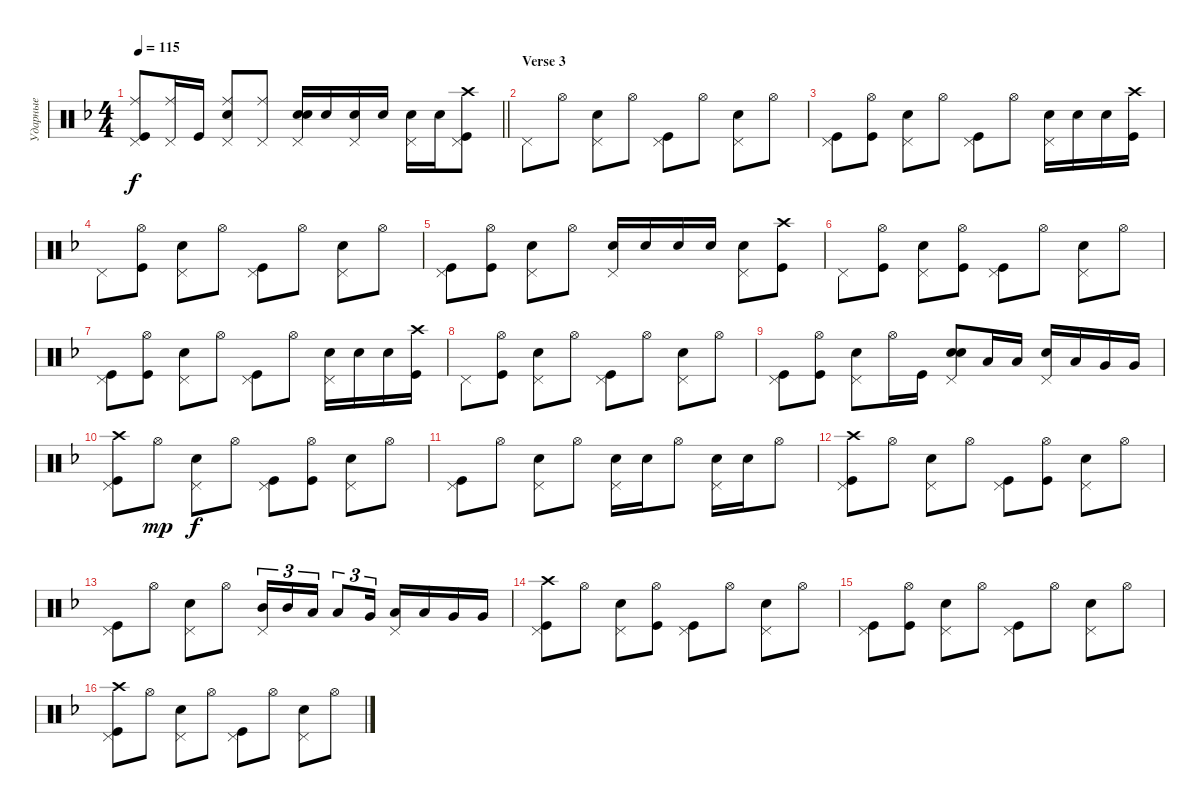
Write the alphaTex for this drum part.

\track ("Ударные" "Ударные") {instrument percussion}
\staff {score}
\articulation defaults
\ts (4 4)
\tempo 115
\clef neutral
\barLineRight lightlight
\ks dminor
("Kick (hit)" "Pedal Hi-Hat (hit)" "Ride (middle)").8{dy f} ("Pedal Hi-Hat (hit)" "Ride (middle)").16 "Kick (hit)".16 ("Snare (hit) 2" "Ride (middle)" "Pedal Hi-Hat (hit)").8 ("Ride (middle)" "Pedal Hi-Hat (hit)").8 ("Snare (hit) 2" "Snare (hit) 2" "Pedal Hi-Hat (hit)").16{bd 240} "Snare (hit) 2".16 ("Snare (hit) 2" "Pedal Hi-Hat (hit)").16 "Snare (hit) 2".16 ("Snare (hit) 2" "Pedal Hi-Hat (hit)").16 "Snare (hit) 2".16 ("Kick (hit)" "Crash high (hit)" "Pedal Hi-Hat (hit)").8 |
\section ("" "Verse 3")
"Pedal Hi-Hat (hit)".8 "Hi-Hat (open)".8 ("Snare (hit) 2" "Pedal Hi-Hat (hit)").8 "Hi-Hat (open)".8 ("Kick (hit)" "Pedal Hi-Hat (hit)").8 "Hi-Hat (open)".8 ("Snare (hit) 2" "Pedal Hi-Hat (hit)").8 "Hi-Hat (open)".8 |
("Kick (hit)" "Pedal Hi-Hat (hit)").8 ("Hi-Hat (open)" "Kick (hit)").8 ("Snare (hit) 2" "Pedal Hi-Hat (hit)").8 "Hi-Hat (open)".8 ("Kick (hit)" "Pedal Hi-Hat (hit)").8 "Hi-Hat (open)".8 ("Snare (hit) 2" "Pedal Hi-Hat (hit)").16 "Snare (hit) 2".16 "Snare (hit) 2".16 ("Kick (hit)" "Crash high (hit)").16 |
"Pedal Hi-Hat (hit)".8 ("Hi-Hat (open)" "Kick (hit)").8 ("Snare (hit) 2" "Pedal Hi-Hat (hit)").8 "Hi-Hat (open)".8 ("Kick (hit)" "Pedal Hi-Hat (hit)").8 "Hi-Hat (open)".8 ("Snare (hit) 2" "Pedal Hi-Hat (hit)").8 "Hi-Hat (open)".8 |
("Kick (hit)" "Pedal Hi-Hat (hit)").8 ("Kick (hit)" "Hi-Hat (open)").8 ("Snare (hit) 2" "Pedal Hi-Hat (hit)").8 "Hi-Hat (open)".8 ("Snare (hit) 2" "Pedal Hi-Hat (hit)").16 "Snare (hit) 2".16 "Snare (hit) 2".16 "Snare (hit) 2".16 ("Snare (hit) 2" "Pedal Hi-Hat (hit)").8 ("Kick (hit)" "Crash high (hit)").8 |
"Pedal Hi-Hat (hit)".8 ("Kick (hit)" "Hi-Hat (open)").8 ("Snare (hit) 2" "Pedal Hi-Hat (hit)").8 ("Hi-Hat (open)" "Kick (hit)").8 ("Kick (hit)" "Pedal Hi-Hat (hit)").8 "Hi-Hat (open)".8 ("Snare (hit) 2" "Pedal Hi-Hat (hit)").8 "Hi-Hat (open)".8 |
("Kick (hit)" "Pedal Hi-Hat (hit)").8 ("Hi-Hat (open)" "Kick (hit)").8 ("Snare (hit) 2" "Pedal Hi-Hat (hit)").8 "Hi-Hat (open)".8 ("Kick (hit)" "Pedal Hi-Hat (hit)").8 "Hi-Hat (open)".8 ("Snare (hit) 2" "Pedal Hi-Hat (hit)").16 "Snare (hit) 2".16 "Snare (hit) 2".16 ("Kick (hit)" "Crash high (hit)").16 |
"Pedal Hi-Hat (hit)".8 ("Hi-Hat (open)" "Kick (hit)").8 ("Snare (hit) 2" "Pedal Hi-Hat (hit)").8 "Hi-Hat (open)".8 ("Kick (hit)" "Pedal Hi-Hat (hit)").8 "Hi-Hat (open)".8 ("Snare (hit) 2" "Pedal Hi-Hat (hit)").8 "Hi-Hat (open)".8 |
("Kick (hit)" "Pedal Hi-Hat (hit)").8 ("Kick (hit)" "Hi-Hat (open)").8 ("Snare (hit) 2" "Pedal Hi-Hat (hit)").8 "Hi-Hat (open)".16 "Kick (hit)".16 ("Snare (hit) 2" "Snare (hit) 2" "Pedal Hi-Hat (hit)").8{bd 480} "Low Tom (hit)".16 "Low Tom (hit)".16 ("Snare (hit) 2" "Pedal Hi-Hat (hit)").16 "Low Tom (hit)".16 "Very Low Tom (hit)".16 "Very Low Tom (hit)".16 |
("Kick (hit)" "Crash high (hit)" "Pedal Hi-Hat (hit)").8 "Hi-Hat (open)".8{dy mp} ("Snare (hit) 2" "Pedal Hi-Hat (hit)").8{dy f} "Hi-Hat (open)".8 ("Kick (hit)" "Pedal Hi-Hat (hit)").8 ("Hi-Hat (open)" "Kick (hit)").8 ("Snare (hit) 2" "Pedal Hi-Hat (hit)").8 "Hi-Hat (open)".8 |
("Kick (hit)" "Pedal Hi-Hat (hit)").8 "Hi-Hat (open)".8 ("Snare (hit) 2" "Pedal Hi-Hat (hit)").8 "Hi-Hat (open)".8 ("Pedal Hi-Hat (hit)" "Snare (hit) 2").16 "Snare (hit) 2".16 "Hi-Hat (open)".8 ("Snare (hit) 2" "Pedal Hi-Hat (hit)").16 "Snare (hit) 2".16 "Hi-Hat (open)".8 |
("Kick (hit)" "Crash high (hit)" "Pedal Hi-Hat (hit)").8 "Hi-Hat (open)".8 ("Snare (hit) 2" "Pedal Hi-Hat (hit)").8 "Hi-Hat (open)".8 ("Kick (hit)" "Pedal Hi-Hat (hit)").8 ("Hi-Hat (open)" "Kick (hit)").8 ("Snare (hit) 2" "Pedal Hi-Hat (hit)").8 "Hi-Hat (open)".8 |
("Kick (hit)" "Pedal Hi-Hat (hit)").8 "Hi-Hat (open)".8 ("Snare (hit) 2" "Pedal Hi-Hat (hit)").8 "Hi-Hat (open)".8 ("Mid Tom (hit)" "Pedal Hi-Hat (hit)").16{tu (3 2)} "Mid Tom (hit)".16{tu (3 2)} "Low Tom (hit)".16{tu (3 2)} "Low Tom (hit)".8{tu (3 2)} "Very Low Tom (hit)".16{tu (3 2)} ("Low Tom (hit)" "Pedal Hi-Hat (hit)").16 "Low Tom (hit)".16 "Very Low Tom (hit)".16 "Very Low Tom (hit)".16 |
("Kick (hit)" "Crash high (hit)" "Pedal Hi-Hat (hit)").8 "Hi-Hat (open)".8 ("Snare (hit) 2" "Pedal Hi-Hat (hit)").8 ("Hi-Hat (open)" "Kick (hit)").8 ("Kick (hit)" "Pedal Hi-Hat (hit)").8 "Hi-Hat (open)".8 ("Snare (hit) 2" "Pedal Hi-Hat (hit)").8 "Hi-Hat (open)".8 |
("Kick (hit)" "Pedal Hi-Hat (hit)").8 ("Hi-Hat (open)" "Kick (hit)").8 ("Snare (hit) 2" "Pedal Hi-Hat (hit)").8 "Hi-Hat (open)".8 ("Kick (hit)" "Pedal Hi-Hat (hit)").8 "Hi-Hat (open)".8 ("Snare (hit) 2" "Pedal Hi-Hat (hit)").8 "Hi-Hat (open)".8 |
("Kick (hit)" "Crash high (hit)" "Pedal Hi-Hat (hit)").8 "Hi-Hat (open)".8 ("Snare (hit) 2" "Pedal Hi-Hat (hit)").8 "Hi-Hat (open)".8 ("Kick (hit)" "Pedal Hi-Hat (hit)").8 "Hi-Hat (open)".8 ("Snare (hit) 2" "Pedal Hi-Hat (hit)").8 "Hi-Hat (open)".8
